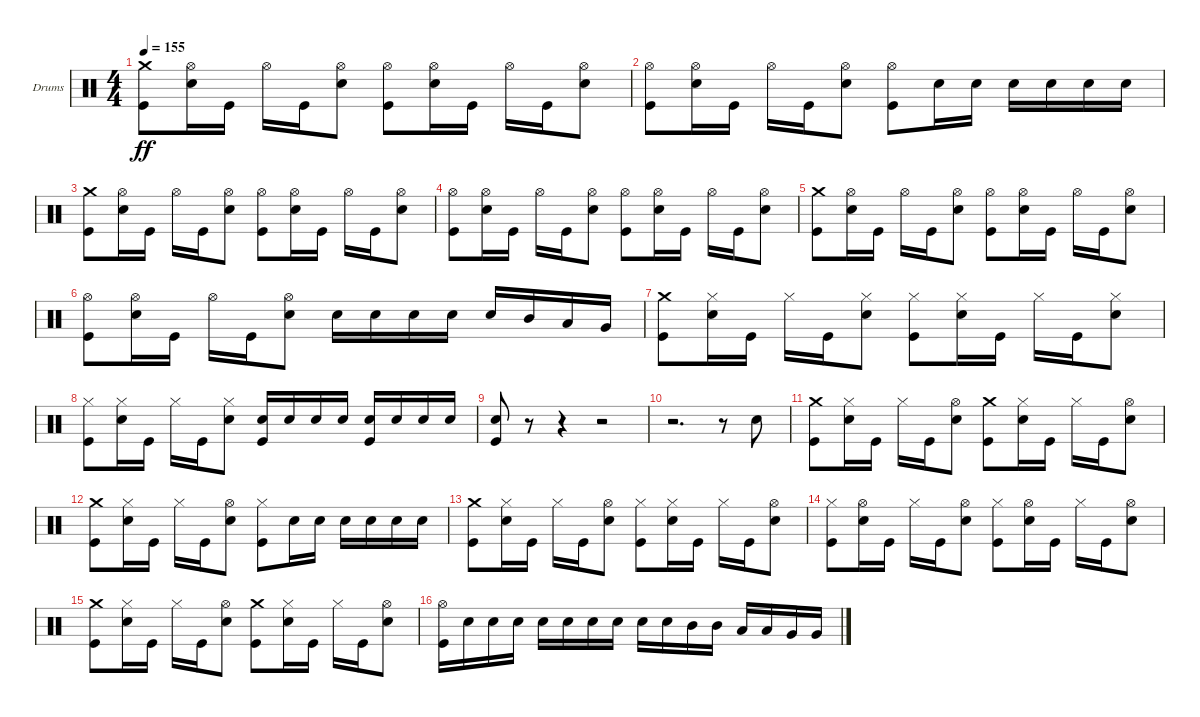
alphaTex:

\defaultSystemsLayout 4
\bracketExtendMode groupsimilarinstruments
\firstSystemTrackNameOrientation horizontal
\otherSystemsTrackNameOrientation horizontal
\track ("Drums - Brandon Barnes" "Drums") {instrument percussion}
\staff {score}
\articulation defaults
\ts (4 4)
\tempo 155
\clef neutral
\scale
0.333333
\ks c
("Kick (hit)" "Crash medium (hit)").8{dy ff} ("Snare (hit) 2" "Hi-Hat (open)").16 "Kick (hit)".16 "Hi-Hat (open)".16 "Kick (hit)".16 ("Snare (hit) 2" "Hi-Hat (open)").8 ("Kick (hit)" "Hi-Hat (open)").8 ("Snare (hit) 2" "Hi-Hat (open)").16 "Kick (hit)".16 "Hi-Hat (open)".16 "Kick (hit)".16 ("Snare (hit) 2" "Hi-Hat (open)").8 |
\scale
0.333333 ("Kick (hit)" "Hi-Hat (open)").8 ("Snare (hit) 2" "Hi-Hat (open)").16 "Kick (hit)".16 "Hi-Hat (open)".16 "Kick (hit)".16 ("Snare (hit) 2" "Hi-Hat (open)").8 ("Kick (hit)" "Hi-Hat (open)").8 "Snare (hit) 2".16 "Snare (hit) 2".16 "Snare (hit) 2".16 "Snare (hit) 2".16 "Snare (hit) 2".16 "Snare (hit) 2".16 |
\scale
0.333333 ("Kick (hit)" "Crash medium (hit)").8 ("Snare (hit) 2" "Hi-Hat (open)").16 "Kick (hit)".16 "Hi-Hat (open)".16 "Kick (hit)".16 ("Snare (hit) 2" "Hi-Hat (open)").8 ("Kick (hit)" "Hi-Hat (open)").8 ("Snare (hit) 2" "Hi-Hat (open)").16 "Kick (hit)".16 "Hi-Hat (open)".16 "Kick (hit)".16 ("Snare (hit) 2" "Hi-Hat (open)").8 |
\scale
0.333333 ("Kick (hit)" "Hi-Hat (open)").8 ("Snare (hit) 2" "Hi-Hat (open)").16 "Kick (hit)".16 "Hi-Hat (open)".16 "Kick (hit)".16 ("Snare (hit) 2" "Hi-Hat (open)").8 ("Kick (hit)" "Hi-Hat (open)").8 ("Snare (hit) 2" "Hi-Hat (open)").16 "Kick (hit)".16 "Hi-Hat (open)".16 "Kick (hit)".16 ("Snare (hit) 2" "Hi-Hat (open)").8 |
\scale
0.333333 ("Kick (hit)" "Crash medium (hit)").8 ("Snare (hit) 2" "Hi-Hat (open)").16 "Kick (hit)".16 "Hi-Hat (open)".16 "Kick (hit)".16 ("Snare (hit) 2" "Hi-Hat (open)").8 ("Kick (hit)" "Hi-Hat (open)").8 ("Snare (hit) 2" "Hi-Hat (open)").16 "Kick (hit)".16 "Hi-Hat (open)".16 "Kick (hit)".16 ("Snare (hit) 2" "Hi-Hat (open)").8 |
\scale
0.333333 ("Kick (hit)" "Hi-Hat (open)").8 ("Snare (hit) 2" "Hi-Hat (open)").16 "Kick (hit)".16 "Hi-Hat (open)".16 "Kick (hit)".16 ("Snare (hit) 2" "Hi-Hat (open)").8 "Snare (hit) 2".16 "Snare (hit) 2".16 "Snare (hit) 2".16 "Snare (hit) 2".16 "Snare (hit) 2".16 "Mid Tom (hit)".16 "Low Tom (hit)".16 "Very Low Tom (hit)".16 |
\scale
0.333333 ("Kick (hit)" "Crash medium (hit)").8 ("Snare (hit) 2" "Hi-Hat (closed)").16 "Kick (hit)".16 "Hi-Hat (closed)".16 "Kick (hit)".16 ("Snare (hit) 2" "Hi-Hat (closed)").8 ("Kick (hit)" "Hi-Hat (closed)").8 ("Snare (hit) 2" "Hi-Hat (closed)").16 "Kick (hit)".16 "Hi-Hat (closed)".16 "Kick (hit)".16 ("Snare (hit) 2" "Hi-Hat (closed)").8 |
\scale
0.333333 ("Kick (hit)" "Hi-Hat (closed)").8 ("Snare (hit) 2" "Hi-Hat (closed)").16 "Kick (hit)".16 "Hi-Hat (closed)".16 "Kick (hit)".16 ("Snare (hit) 2" "Hi-Hat (closed)").8 ("Kick (hit)" "Snare (hit) 2").16 "Snare (hit) 2".16 "Snare (hit) 2".16 "Snare (hit) 2".16 ("Kick (hit)" "Snare (hit) 2").16 "Snare (hit) 2".16 "Snare (hit) 2".16 "Snare (hit) 2".16 |
\scale
0.333333 ("Snare (hit) 2" "Kick (hit)").8 r.8 r.4 r.2 |
\scale
0.333333 r.2{d} r.8 "Snare (hit) 2".8 |
\scale
0.333333 ("Kick (hit)" "Crash medium (hit)").8 ("Snare (hit) 2" "Hi-Hat (closed)").16 "Kick (hit)".16 "Hi-Hat (closed)".16 "Kick (hit)".16 ("Snare (hit) 2" "Hi-Hat (open)").8 ("Kick (hit)" "Crash medium (hit)").8 ("Snare (hit) 2" "Hi-Hat (closed)").16 "Kick (hit)".16 "Hi-Hat (closed)".16 "Kick (hit)".16 ("Snare (hit) 2" "Hi-Hat (open)").8 |
\scale
0.333333 ("Kick (hit)" "Crash medium (hit)").8 ("Snare (hit) 2" "Hi-Hat (closed)").16 "Kick (hit)".16 "Hi-Hat (closed)".16 "Kick (hit)".16 ("Snare (hit) 2" "Hi-Hat (open)").8 ("Kick (hit)" "Hi-Hat (closed)").8 "Snare (hit) 2".16 "Snare (hit) 2".16 "Snare (hit) 2".16 "Snare (hit) 2".16 "Snare (hit) 2".16 "Snare (hit) 2".16 |
\scale
0.333333 ("Kick (hit)" "Crash medium (hit)").8 ("Snare (hit) 2" "Hi-Hat (closed)").16 "Kick (hit)".16 "Hi-Hat (closed)".16 "Kick (hit)".16 ("Snare (hit) 2" "Hi-Hat (open)").8 ("Kick (hit)" "Hi-Hat (closed)").8 ("Snare (hit) 2" "Hi-Hat (closed)").16 "Kick (hit)".16 "Hi-Hat (closed)".16 "Kick (hit)".16 ("Snare (hit) 2" "Hi-Hat (open)").8 |
\scale
0.333333 ("Kick (hit)" "Hi-Hat (closed)").8 ("Snare (hit) 2" "Hi-Hat (open)").16 "Kick (hit)".16 "Hi-Hat (closed)".16 "Kick (hit)".16 ("Snare (hit) 2" "Hi-Hat (open)").8 ("Kick (hit)" "Hi-Hat (closed)").8 ("Snare (hit) 2" "Hi-Hat (open)").16 "Kick (hit)".16 "Hi-Hat (closed)".16 "Kick (hit)".16 ("Snare (hit) 2" "Hi-Hat (open)").8 |
\scale
0.333333 ("Kick (hit)" "Crash medium (hit)").8 ("Snare (hit) 2" "Hi-Hat (closed)").16 "Kick (hit)".16 "Hi-Hat (closed)".16 "Kick (hit)".16 ("Snare (hit) 2" "Hi-Hat (open)").8 ("Kick (hit)" "Crash medium (hit)").8 ("Snare (hit) 2" "Hi-Hat (closed)").16 "Kick (hit)".16 "Hi-Hat (closed)".16 "Kick (hit)".16 ("Snare (hit) 2" "Hi-Hat (open)").8 |
\scale
0.333333 ("Kick (hit)" "Hi-Hat (open)").16 "Snare (hit) 2".16 "Snare (hit) 2".16 "Snare (hit) 2".16 "Snare (hit) 2".16 "Snare (hit) 2".16 "Snare (hit) 2".16 "Snare (hit) 2".16 "Snare (hit) 2".16 "Snare (hit) 2".16 "Mid Tom (hit)".16 "Mid Tom (hit)".16 "Low Tom (hit)".16 "Low Tom (hit)".16 "Very Low Tom (hit)".16 "Very Low Tom (hit)".16
